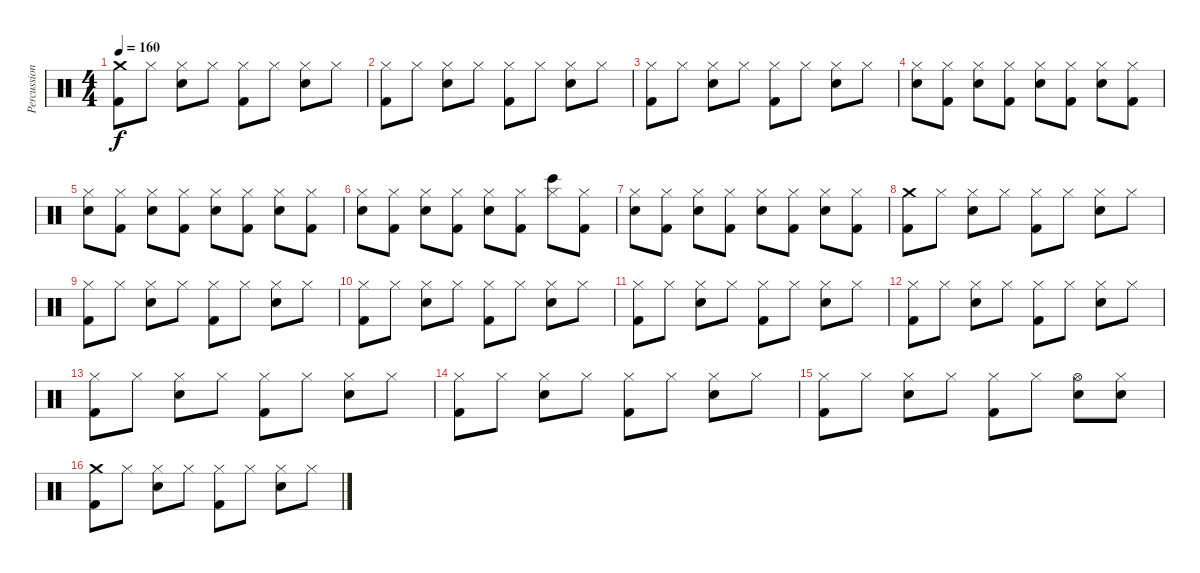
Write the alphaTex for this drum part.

\track ("Percussion" "Percussion") {instrument percussion}
\staff {score}
\articulation defaults
\ts (4 4)
\tempo 160
\clef neutral
\ks c
("Crash medium (hit)" "Kick (hit) 2").8{dy f} "Hi-Hat (closed)".8 ("Hi-Hat (closed)" "Snare (hit) 2").8 "Hi-Hat (closed)".8 ("Hi-Hat (closed)" "Kick (hit) 2").8 "Hi-Hat (closed)".8 ("Hi-Hat (closed)" "Snare (hit) 2").8 "Hi-Hat (closed)".8 |
("Hi-Hat (closed)" "Kick (hit) 2").8 "Hi-Hat (closed)".8 ("Hi-Hat (closed)" "Snare (hit) 2").8 "Hi-Hat (closed)".8 ("Hi-Hat (closed)" "Kick (hit) 2").8 "Hi-Hat (closed)".8 ("Hi-Hat (closed)" "Snare (hit) 2").8 "Hi-Hat (closed)".8 |
("Hi-Hat (closed)" "Kick (hit) 2").8 "Hi-Hat (closed)".8 ("Hi-Hat (closed)" "Snare (hit) 2").8 "Hi-Hat (closed)".8 ("Hi-Hat (closed)" "Kick (hit) 2").8 "Hi-Hat (closed)".8 ("Hi-Hat (closed)" "Snare (hit) 2").8 "Hi-Hat (closed)".8 |
("Hi-Hat (closed)" "Snare (hit) 2").8 ("Hi-Hat (closed)" "Kick (hit) 2").8 ("Hi-Hat (closed)" "Snare (hit) 2").8 ("Hi-Hat (closed)" "Kick (hit) 2").8 ("Hi-Hat (closed)" "Snare (hit) 2").8 ("Hi-Hat (closed)" "Kick (hit) 2").8 ("Hi-Hat (closed)" "Snare (hit) 2").8 ("Hi-Hat (closed)" "Kick (hit) 2").8 |
("Hi-Hat (closed)" "Snare (hit) 2").8 ("Hi-Hat (closed)" "Kick (hit) 2").8 ("Hi-Hat (closed)" "Snare (hit) 2").8 ("Hi-Hat (closed)" "Kick (hit) 2").8 ("Hi-Hat (closed)" "Snare (hit) 2").8 ("Hi-Hat (closed)" "Kick (hit) 2").8 ("Hi-Hat (closed)" "Snare (hit) 2").8 ("Hi-Hat (closed)" "Kick (hit) 2").8 |
("Hi-Hat (closed)" "Snare (hit) 2").8 ("Hi-Hat (closed)" "Kick (hit) 2").8 ("Hi-Hat (closed)" "Snare (hit) 2").8 ("Hi-Hat (closed)" "Kick (hit) 2").8 ("Hi-Hat (closed)" "Snare (hit) 2").8 ("Hi-Hat (closed)" "Kick (hit) 2").8 ("Hi-Hat (closed)" "Bongo High (hit)").8 ("Hi-Hat (closed)" "Kick (hit) 2").8 |
("Hi-Hat (closed)" "Snare (hit) 2").8 ("Hi-Hat (closed)" "Kick (hit) 2").8 ("Hi-Hat (closed)" "Snare (hit) 2").8 ("Hi-Hat (closed)" "Kick (hit) 2").8 ("Hi-Hat (closed)" "Snare (hit) 2").8 ("Hi-Hat (closed)" "Kick (hit) 2").8 ("Hi-Hat (closed)" "Snare (hit) 2").8 ("Hi-Hat (closed)" "Kick (hit) 2").8 |
("Crash medium (hit)" "Kick (hit) 2").8 "Hi-Hat (closed)".8 ("Hi-Hat (closed)" "Snare (hit) 2").8 "Hi-Hat (closed)".8 ("Hi-Hat (closed)" "Kick (hit) 2").8 "Hi-Hat (closed)".8 ("Hi-Hat (closed)" "Snare (hit) 2").8 "Hi-Hat (closed)".8 |
("Hi-Hat (closed)" "Kick (hit) 2").8 "Hi-Hat (closed)".8 ("Hi-Hat (closed)" "Snare (hit) 2").8 "Hi-Hat (closed)".8 ("Hi-Hat (closed)" "Kick (hit) 2").8 "Hi-Hat (closed)".8 ("Hi-Hat (closed)" "Snare (hit) 2").8 "Hi-Hat (closed)".8 |
("Hi-Hat (closed)" "Kick (hit) 2").8 "Hi-Hat (closed)".8 ("Hi-Hat (closed)" "Snare (hit) 2").8 "Hi-Hat (closed)".8 ("Hi-Hat (closed)" "Kick (hit) 2").8 "Hi-Hat (closed)".8 ("Hi-Hat (closed)" "Snare (hit) 2").8 "Hi-Hat (closed)".8 |
("Hi-Hat (closed)" "Kick (hit) 2").8 "Hi-Hat (closed)".8 ("Hi-Hat (closed)" "Snare (hit) 2").8 "Hi-Hat (closed)".8 ("Hi-Hat (closed)" "Kick (hit) 2").8 "Hi-Hat (closed)".8 ("Hi-Hat (closed)" "Snare (hit) 2").8 "Hi-Hat (closed)".8 |
("Hi-Hat (closed)" "Kick (hit) 2").8 "Hi-Hat (closed)".8 ("Hi-Hat (closed)" "Snare (hit) 2").8 "Hi-Hat (closed)".8 ("Hi-Hat (closed)" "Kick (hit) 2").8 "Hi-Hat (closed)".8 ("Hi-Hat (closed)" "Snare (hit) 2").8 "Hi-Hat (closed)".8 |
("Hi-Hat (closed)" "Kick (hit) 2").8 "Hi-Hat (closed)".8 ("Hi-Hat (closed)" "Snare (hit) 2").8 "Hi-Hat (closed)".8 ("Hi-Hat (closed)" "Kick (hit) 2").8 "Hi-Hat (closed)".8 ("Hi-Hat (closed)" "Snare (hit) 2").8 "Hi-Hat (closed)".8 |
("Hi-Hat (closed)" "Kick (hit) 2").8 "Hi-Hat (closed)".8 ("Hi-Hat (closed)" "Snare (hit) 2").8 "Hi-Hat (closed)".8 ("Hi-Hat (closed)" "Kick (hit) 2").8 "Hi-Hat (closed)".8 ("Hi-Hat (closed)" "Snare (hit) 2").8 "Hi-Hat (closed)".8 |
("Hi-Hat (closed)" "Kick (hit) 2").8 "Hi-Hat (closed)".8 ("Hi-Hat (closed)" "Snare (hit) 2").8 "Hi-Hat (closed)".8 ("Hi-Hat (closed)" "Kick (hit) 2").8 "Hi-Hat (closed)".8 ("Hi-Hat (open)" "Snare (hit) 2").8 ("Hi-Hat (closed)" "Snare (hit) 2").8 |
("Crash medium (hit)" "Kick (hit) 2").8 "Hi-Hat (closed)".8 ("Hi-Hat (closed)" "Snare (hit) 2").8 "Hi-Hat (closed)".8 ("Hi-Hat (closed)" "Kick (hit) 2").8 "Hi-Hat (closed)".8 ("Hi-Hat (closed)" "Snare (hit) 2").8 "Hi-Hat (closed)".8
